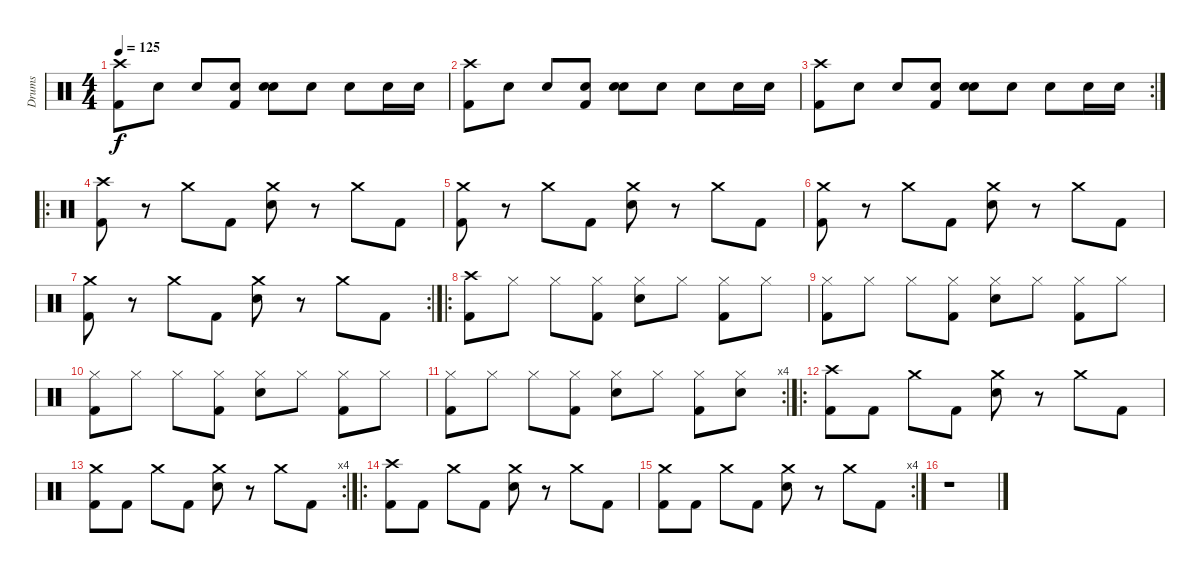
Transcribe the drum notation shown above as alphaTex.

\track ("Drums" "Drums") {instrument percussion}
\staff {score}
\articulation defaults
\ts (4 4)
\tempo 125
\clef neutral
\ks c
("Crash high (hit)" "Kick (hit) 2").8{dy f} "Snare (hit) 2".8 "Snare (hit) 2".8 ("Snare (hit) 2" "Kick (hit) 2").8 ("Snare (hit) 2" "Snare (hit) 2").8 "Snare (hit) 2".8 "Snare (hit) 2".8 "Snare (hit) 2".16 "Snare (hit) 2".16 |
("Crash high (hit)" "Kick (hit) 2").8 "Snare (hit) 2".8 "Snare (hit) 2".8 ("Snare (hit) 2" "Kick (hit) 2").8 ("Snare (hit) 2" "Snare (hit) 2").8 "Snare (hit) 2".8 "Snare (hit) 2".8 "Snare (hit) 2".16 "Snare (hit) 2".16 |
\rc 2
("Crash high (hit)" "Kick (hit) 2").8 "Snare (hit) 2".8 "Snare (hit) 2".8 ("Snare (hit) 2" "Kick (hit) 2").8 ("Snare (hit) 2" "Snare (hit) 2").8 "Snare (hit) 2".8 "Snare (hit) 2".8 "Snare (hit) 2".16 "Snare (hit) 2".16 |
\ro
("Crash high (hit)" "Kick (hit) 2").8 r.8 "Crash medium (hit)".8 "Kick (hit) 2".8 ("Crash medium (hit)" "Snare (hit) 2").8 r.8 "Crash medium (hit)".8 "Kick (hit) 2".8 |
("Crash medium (hit)" "Kick (hit) 2").8 r.8 "Crash medium (hit)".8 "Kick (hit) 2".8 ("Crash medium (hit)" "Snare (hit) 2").8 r.8 "Crash medium (hit)".8 "Kick (hit) 2".8 |
("Crash medium (hit)" "Kick (hit) 2").8 r.8 "Crash medium (hit)".8 "Kick (hit) 2".8 ("Crash medium (hit)" "Snare (hit) 2").8 r.8 "Crash medium (hit)".8 "Kick (hit) 2".8 |
\rc 2
("Crash medium (hit)" "Kick (hit) 2").8 r.8 "Crash medium (hit)".8 "Kick (hit) 2".8 ("Crash medium (hit)" "Snare (hit) 2").8 r.8 "Crash medium (hit)".8 "Kick (hit) 2".8 |
\ro
("Crash high (hit)" "Kick (hit) 2").8 "Hi-Hat (closed)".8 "Hi-Hat (closed)".8 ("Hi-Hat (closed)" "Kick (hit) 2").8 ("Hi-Hat (closed)" "Snare (hit) 2").8 "Hi-Hat (closed)".8 ("Hi-Hat (closed)" "Kick (hit) 2").8 "Hi-Hat (closed)".8 |
("Hi-Hat (closed)" "Kick (hit) 2").8 "Hi-Hat (closed)".8 "Hi-Hat (closed)".8 ("Hi-Hat (closed)" "Kick (hit) 2").8 ("Hi-Hat (closed)" "Snare (hit) 2").8 "Hi-Hat (closed)".8 ("Hi-Hat (closed)" "Kick (hit) 2").8 "Hi-Hat (closed)".8 |
("Hi-Hat (closed)" "Kick (hit) 2").8 "Hi-Hat (closed)".8 "Hi-Hat (closed)".8 ("Hi-Hat (closed)" "Kick (hit) 2").8 ("Hi-Hat (closed)" "Snare (hit) 2").8 "Hi-Hat (closed)".8 ("Hi-Hat (closed)" "Kick (hit) 2").8 "Hi-Hat (closed)".8 |
\rc 4
("Hi-Hat (closed)" "Kick (hit) 2").8 "Hi-Hat (closed)".8 "Hi-Hat (closed)".8 ("Hi-Hat (closed)" "Kick (hit) 2").8 ("Hi-Hat (closed)" "Snare (hit) 2").8 "Hi-Hat (closed)".8 ("Hi-Hat (closed)" "Kick (hit) 2").8 ("Hi-Hat (closed)" "Snare (hit) 2").8 |
\ro
("Crash high (hit)" "Kick (hit) 2").8 "Kick (hit) 2".8 "Crash medium (hit)".8 "Kick (hit) 2".8 ("Crash medium (hit)" "Snare (hit) 2").8 r.8 "Crash medium (hit)".8 "Kick (hit) 2".8 |
\rc 4
("Crash medium (hit)" "Kick (hit) 2").8 "Kick (hit) 2".8 "Crash medium (hit)".8 "Kick (hit) 2".8 ("Crash medium (hit)" "Snare (hit) 2").8 r.8 "Crash medium (hit)".8 "Kick (hit) 2".8 |
\ro
("Crash high (hit)" "Kick (hit) 2").8 "Kick (hit) 2".8 "Crash medium (hit)".8 "Kick (hit) 2".8 ("Crash medium (hit)" "Snare (hit) 2").8 r.8 "Crash medium (hit)".8 "Kick (hit) 2".8 |
\rc 4
("Crash medium (hit)" "Kick (hit) 2").8 "Kick (hit) 2".8 "Crash medium (hit)".8 "Kick (hit) 2".8 ("Crash medium (hit)" "Snare (hit) 2").8 r.8 "Crash medium (hit)".8 "Kick (hit) 2".8 |
r.1
